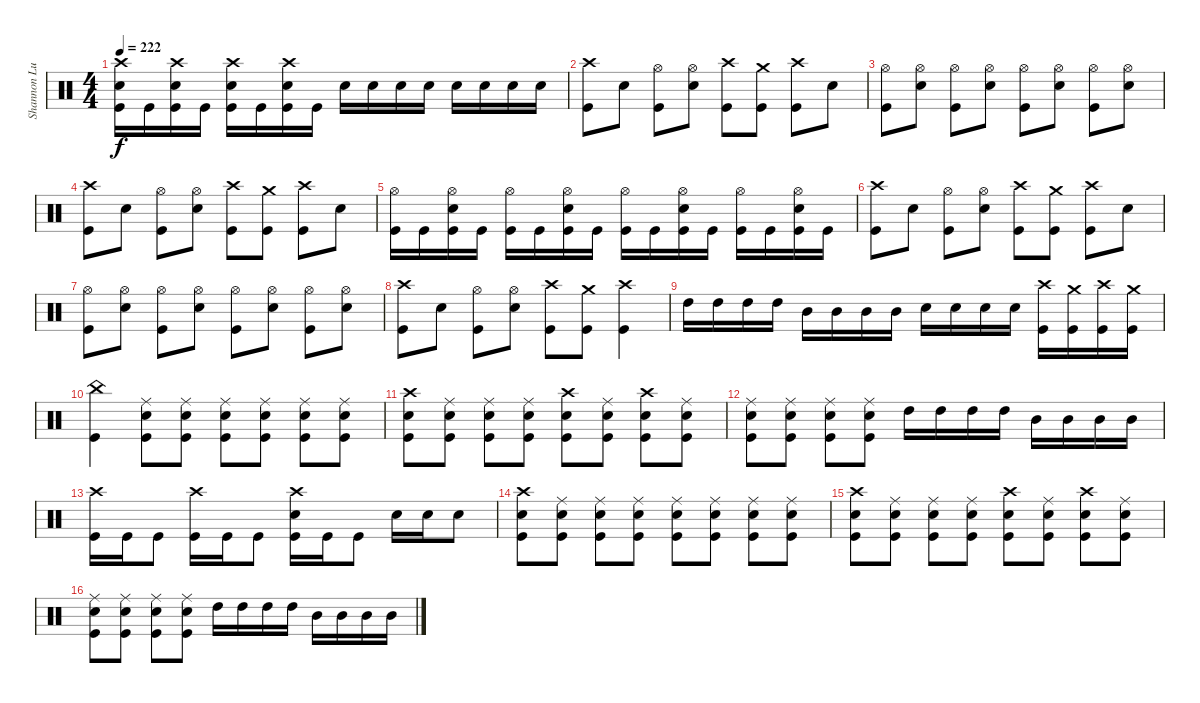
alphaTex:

\track ("Shannon Lucas" "Shannon Lu") {instrument percussion}
\staff {score}
\articulation defaults
\ts (4 4)
\tempo 222
\clef neutral
\ks c
("Crash high (hit)" "Snare (hit) 2" "Kick (hit)").16{dy f} "Kick (hit)".16 ("Crash high (hit)" "Snare (hit) 2" "Kick (hit)").16 "Kick (hit)".16 ("Crash high (hit)" "Snare (hit) 2" "Kick (hit)").16 "Kick (hit)".16 ("Crash high (hit)" "Snare (hit) 2" "Kick (hit)").16 "Kick (hit)".16 "Snare (hit) 2".16 "Snare (hit) 2".16 "Snare (hit) 2".16 "Snare (hit) 2".16 "Snare (hit) 2".16 "Snare (hit) 2".16 "Snare (hit) 2".16 "Snare (hit) 2".16 |
("Crash high (hit)" "Kick (hit)").8 "Snare (hit) 2".8 ("Hi-Hat (open)" "Kick (hit)").8 ("Hi-Hat (open)" "Snare (hit) 2").8 ("Crash high (hit)" "Kick (hit)").8 ("Crash medium (hit)" "Kick (hit)").8 ("Crash high (hit)" "Kick (hit)").8 "Snare (hit) 2".8 |
("Hi-Hat (open)" "Kick (hit)").8 ("Hi-Hat (open)" "Snare (hit) 2").8 ("Hi-Hat (open)" "Kick (hit)").8 ("Hi-Hat (open)" "Snare (hit) 2").8 ("Hi-Hat (open)" "Kick (hit)").8 ("Hi-Hat (open)" "Snare (hit) 2").8 ("Hi-Hat (open)" "Kick (hit)").8 ("Hi-Hat (open)" "Snare (hit) 2").8 |
("Crash high (hit)" "Kick (hit)").8 "Snare (hit) 2".8 ("Hi-Hat (open)" "Kick (hit)").8 ("Hi-Hat (open)" "Snare (hit) 2").8 ("Crash high (hit)" "Kick (hit)").8 ("Crash medium (hit)" "Kick (hit)").8 ("Crash high (hit)" "Kick (hit)").8 "Snare (hit) 2".8 |
("Hi-Hat (open)" "Kick (hit)").16 "Kick (hit)".16 ("Hi-Hat (open)" "Snare (hit) 2" "Kick (hit)").16 "Kick (hit)".16 ("Hi-Hat (open)" "Kick (hit)").16 "Kick (hit)".16 ("Hi-Hat (open)" "Snare (hit) 2" "Kick (hit)").16 "Kick (hit)".16 ("Hi-Hat (open)" "Kick (hit)").16 "Kick (hit)".16 ("Hi-Hat (open)" "Snare (hit) 2" "Kick (hit)").16 "Kick (hit)".16 ("Hi-Hat (open)" "Kick (hit)").16 "Kick (hit)".16 ("Hi-Hat (open)" "Snare (hit) 2" "Kick (hit)").16 "Kick (hit)".16 |
("Crash high (hit)" "Kick (hit)").8 "Snare (hit) 2".8 ("Hi-Hat (open)" "Kick (hit)").8 ("Hi-Hat (open)" "Snare (hit) 2").8 ("Crash high (hit)" "Kick (hit)").8 ("Crash medium (hit)" "Kick (hit)").8 ("Crash high (hit)" "Kick (hit)").8 "Snare (hit) 2".8 |
("Hi-Hat (open)" "Kick (hit)").8 ("Hi-Hat (open)" "Snare (hit) 2").8 ("Hi-Hat (open)" "Kick (hit)").8 ("Hi-Hat (open)" "Snare (hit) 2").8 ("Hi-Hat (open)" "Kick (hit)").8 ("Hi-Hat (open)" "Snare (hit) 2").8 ("Hi-Hat (open)" "Kick (hit)").8 ("Hi-Hat (open)" "Snare (hit) 2").8 |
("Crash high (hit)" "Kick (hit)").8 "Snare (hit) 2".8 ("Hi-Hat (open)" "Kick (hit)").8 ("Hi-Hat (open)" "Snare (hit) 2").8 ("Crash high (hit)" "Kick (hit)").8 ("Crash medium (hit)" "Kick (hit)").8 ("Crash high (hit)" "Kick (hit)").4 |
"High Tom (hit)".16 "High Tom (hit)".16 "High Tom (hit)".16 "High Tom (hit)".16 "Mid Tom (hit)".16 "Mid Tom (hit)".16 "Mid Tom (hit)".16 "Mid Tom (hit)".16 "Snare (hit) 2".16 "Snare (hit) 2".16 "Snare (hit) 2".16 "Snare (hit) 2".16 ("Crash high (hit)" "Kick (hit)").16 ("Crash medium (hit)" "Kick (hit)").16 ("Crash high (hit)" "Kick (hit)").16 ("Crash medium (hit)" "Kick (hit)").16 |
("China (hit)" "Kick (hit)").4 ("Ride (middle)" "Snare (hit) 2" "Kick (hit)").8 ("Ride (middle)" "Snare (hit) 2" "Kick (hit)").8 ("Ride (middle)" "Snare (hit) 2" "Kick (hit)").8 ("Ride (middle)" "Snare (hit) 2" "Kick (hit)").8 ("Ride (middle)" "Snare (hit) 2" "Kick (hit)").8 ("Ride (middle)" "Snare (hit) 2" "Kick (hit)").8 |
("Crash high (hit)" "Snare (hit) 2" "Kick (hit)").8 ("Ride (middle)" "Snare (hit) 2" "Kick (hit)").8 ("Ride (middle)" "Snare (hit) 2" "Kick (hit)").8 ("Ride (middle)" "Snare (hit) 2" "Kick (hit)").8 ("Crash high (hit)" "Snare (hit) 2" "Kick (hit)").8 ("Ride (middle)" "Snare (hit) 2" "Kick (hit)").8 ("Crash high (hit)" "Snare (hit) 2" "Kick (hit)").8 ("Ride (middle)" "Snare (hit) 2" "Kick (hit)").8 |
("Ride (middle)" "Snare (hit) 2" "Kick (hit)").8 ("Ride (middle)" "Snare (hit) 2" "Kick (hit)").8 ("Ride (middle)" "Snare (hit) 2" "Kick (hit)").8 ("Ride (middle)" "Snare (hit) 2" "Kick (hit)").8 "High Tom (hit)".16 "High Tom (hit)".16 "High Tom (hit)".16 "High Tom (hit)".16 "Mid Tom (hit)".16 "Mid Tom (hit)".16 "Mid Tom (hit)".16 "Mid Tom (hit)".16 |
("Crash high (hit)" "Kick (hit)").16 "Kick (hit)".16 "Kick (hit)".8 ("Crash high (hit)" "Kick (hit)").16 "Kick (hit)".16 "Kick (hit)".8 ("Crash high (hit)" "Snare (hit) 2" "Kick (hit)").16 "Kick (hit)".16 "Kick (hit)".8 "Snare (hit) 2".16 "Snare (hit) 2".16 "Snare (hit) 2".8 |
("Crash high (hit)" "Snare (hit) 2" "Kick (hit)").8 ("Ride (middle)" "Snare (hit) 2" "Kick (hit)").8 ("Ride (middle)" "Snare (hit) 2" "Kick (hit)").8 ("Ride (middle)" "Snare (hit) 2" "Kick (hit)").8 ("Ride (middle)" "Snare (hit) 2" "Kick (hit)").8 ("Ride (middle)" "Snare (hit) 2" "Kick (hit)").8 ("Ride (middle)" "Snare (hit) 2" "Kick (hit)").8 ("Ride (middle)" "Snare (hit) 2" "Kick (hit)").8 |
("Crash high (hit)" "Snare (hit) 2" "Kick (hit)").8 ("Ride (middle)" "Snare (hit) 2" "Kick (hit)").8 ("Ride (middle)" "Snare (hit) 2" "Kick (hit)").8 ("Ride (middle)" "Snare (hit) 2" "Kick (hit)").8 ("Crash high (hit)" "Snare (hit) 2" "Kick (hit)").8 ("Ride (middle)" "Snare (hit) 2" "Kick (hit)").8 ("Crash high (hit)" "Snare (hit) 2" "Kick (hit)").8 ("Ride (middle)" "Snare (hit) 2" "Kick (hit)").8 |
("Ride (middle)" "Snare (hit) 2" "Kick (hit)").8 ("Ride (middle)" "Snare (hit) 2" "Kick (hit)").8 ("Ride (middle)" "Snare (hit) 2" "Kick (hit)").8 ("Ride (middle)" "Snare (hit) 2" "Kick (hit)").8 "High Tom (hit)".16 "High Tom (hit)".16 "High Tom (hit)".16 "High Tom (hit)".16 "Mid Tom (hit)".16 "Mid Tom (hit)".16 "Mid Tom (hit)".16 "Mid Tom (hit)".16
